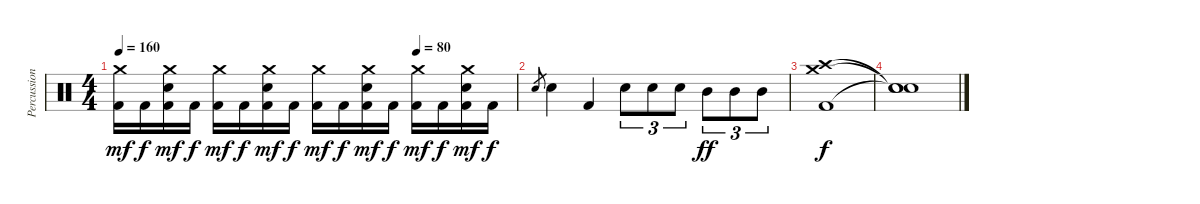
\track ("Percussion" "Percussion") {instrument percussion}
\staff {score}
\articulation defaults
\ts (4 4)
\tempo 160
\tempo (80 0.75)
\clef neutral
\ks c
("Crash medium (hit)" "Kick (hit) 2").16{dy mf} "Kick (hit) 2".16{dy f} ("Crash medium (hit)" "Electric Snare (hit)" "Kick (hit) 2").16{dy mf} "Kick (hit) 2".16{dy f} ("Crash medium (hit)" "Kick (hit) 2").16{dy mf} "Kick (hit) 2".16{dy f} ("Crash medium (hit)" "Electric Snare (hit)" "Kick (hit) 2").16{dy mf} "Kick (hit) 2".16{dy f} ("Crash medium (hit)" "Kick (hit) 2").16{dy mf} "Kick (hit) 2".16{dy f} ("Crash medium (hit)" "Electric Snare (hit)" "Kick (hit) 2").16{dy mf} "Kick (hit) 2".16{dy f} ("Crash medium (hit)" "Kick (hit) 2").16{dy mf} "Kick (hit) 2".16{dy f} ("Crash medium (hit)" "Electric Snare (hit)" "Kick (hit) 2").16{dy mf} "Kick (hit) 2".16{dy f} |
"Electric Snare (hit)".8{gr} "Electric Snare (hit)".4 "Kick (hit) 2".4 "Electric Snare (hit)".8{tu (3 2)} "Electric Snare (hit)".8{tu (3 2)} "Electric Snare (hit)".8{tu (3 2)} "Mid Tom (hit)".8{tu (3 2) dy ff} "Mid Tom (hit)".8{tu (3 2)} "Mid Tom (hit)".8{tu (3 2)} |
("Crash high (hit)" "Crash medium (hit)" "Kick (hit) 2").1{dy f} |
("Snare (hit)"{t} "Snare (hit)"{t} "Snare (hit)"{t}).1
